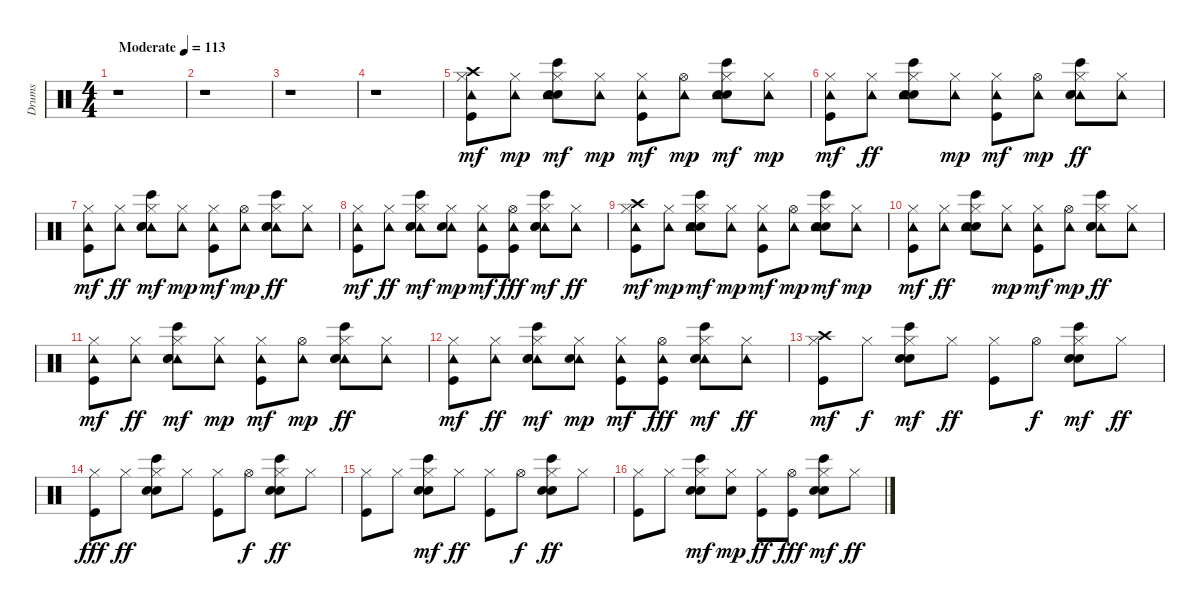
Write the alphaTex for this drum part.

\track ("Drums" "Drums") {instrument percussion}
\staff {score}
\articulation defaults
\ts (4 4)
\tempo (113 "Moderate")
\clef neutral
\ks c
r.1{dy mf} |
r.1 |
r.1 |
r.1 |
("Kick (hit)" "Hi-Hat (closed)" "Crash high (hit)" "Tambourine (hit)").8 ("Tambourine (hit)" "Hi-Hat (closed)").8{dy mp} ("Hi-Hat (closed)" "Bongo High (hit)" "Snare (hit) 2" "Hand Clap (hit)" "Tambourine (hit)").8{dy mf} ("Hi-Hat (closed)" "Tambourine (hit)").8{dy mp} ("Kick (hit)" "Hi-Hat (closed)" "Tambourine (hit)").8{dy mf} ("Tambourine (hit)" "Hi-Hat (open)").8{dy mp} ("Hi-Hat (closed)" "Bongo High (hit)" "Snare (hit) 2" "Hand Clap (hit)" "Tambourine (hit)").8{dy mf} ("Hi-Hat (closed)" "Tambourine (hit)").8{dy mp} |
("Kick (hit)" "Hi-Hat (closed)" "Tambourine (hit)").8{dy mf} ("Tambourine (hit)" "Hi-Hat (closed)").8{dy ff} ("Bongo High (hit)" "Snare (hit) 2" "Hand Clap (hit)" "Tambourine (hit)" "Hi-Hat (closed)").8 ("Hi-Hat (closed)" "Tambourine (hit)").8{dy mp} ("Kick (hit)" "Hi-Hat (closed)" "Tambourine (hit)").8{dy mf} ("Tambourine (hit)" "Hi-Hat (open)").8{dy mp} ("Tambourine (hit)" "Bongo High (hit)" "Snare (hit) 2" "Hand Clap (hit)" "Hi-Hat (closed)").8{dy ff} ("Tambourine (hit)" "Hi-Hat (closed)").8 |
("Kick (hit)" "Hi-Hat (closed)" "Tambourine (hit)").8{dy mf} ("Tambourine (hit)" "Hi-Hat (closed)").8{dy ff} ("Tambourine (hit)" "Hi-Hat (closed)" "Bongo High (hit)" "Snare (hit) 2" "Hand Clap (hit)").8{dy mf} ("Hi-Hat (closed)" "Tambourine (hit)").8{dy mp} ("Kick (hit)" "Hi-Hat (closed)" "Tambourine (hit)").8{dy mf} ("Tambourine (hit)" "Hi-Hat (open)").8{dy mp} ("Tambourine (hit)" "Bongo High (hit)" "Snare (hit) 2" "Hand Clap (hit)" "Hi-Hat (closed)").8{dy ff} ("Tambourine (hit)" "Hi-Hat (closed)").8 |
("Kick (hit)" "Hi-Hat (closed)" "Tambourine (hit)").8{dy mf} ("Tambourine (hit)" "Hi-Hat (closed)").8{dy ff} ("Hi-Hat (closed)" "Tambourine (hit)" "Bongo High (hit)" "Snare (hit) 2" "Hand Clap (hit)").8{dy mf} ("Hi-Hat (closed)" "Tambourine (hit)" "Snare (hit) 2").8{dy mp} ("Kick (hit)" "Hi-Hat (closed)" "Tambourine (hit)").8{dy mf} ("Hi-Hat (open)" "Tambourine (hit)" "Kick (hit)").8{dy fff} ("Hi-Hat (closed)" "Tambourine (hit)" "Bongo High (hit)" "Snare (hit) 2" "Hand Clap (hit)").8{dy mf} ("Tambourine (hit)" "Hi-Hat (closed)").8{dy ff} |
("Kick (hit)" "Hi-Hat (closed)" "Crash high (hit)" "Tambourine (hit)").8{dy mf} ("Tambourine (hit)" "Hi-Hat (closed)").8{dy mp} ("Hi-Hat (closed)" "Bongo High (hit)" "Snare (hit) 2" "Hand Clap (hit)" "Tambourine (hit)").8{dy mf} ("Hi-Hat (closed)" "Tambourine (hit)").8{dy mp} ("Kick (hit)" "Hi-Hat (closed)" "Tambourine (hit)").8{dy mf} ("Tambourine (hit)" "Hi-Hat (open)").8{dy mp} ("Hi-Hat (closed)" "Bongo High (hit)" "Snare (hit) 2" "Hand Clap (hit)" "Tambourine (hit)").8{dy mf} ("Hi-Hat (closed)" "Tambourine (hit)").8{dy mp} |
("Kick (hit)" "Hi-Hat (closed)" "Tambourine (hit)").8{dy mf} ("Tambourine (hit)" "Hi-Hat (closed)").8{dy ff} ("Bongo High (hit)" "Snare (hit) 2" "Hand Clap (hit)" "Tambourine (hit)" "Hi-Hat (closed)").8 ("Hi-Hat (closed)" "Tambourine (hit)").8{dy mp} ("Kick (hit)" "Hi-Hat (closed)" "Tambourine (hit)").8{dy mf} ("Tambourine (hit)" "Hi-Hat (open)").8{dy mp} ("Tambourine (hit)" "Bongo High (hit)" "Snare (hit) 2" "Hand Clap (hit)" "Hi-Hat (closed)").8{dy ff} ("Tambourine (hit)" "Hi-Hat (closed)").8 |
("Kick (hit)" "Hi-Hat (closed)" "Tambourine (hit)").8{dy mf} ("Tambourine (hit)" "Hi-Hat (closed)").8{dy ff} ("Tambourine (hit)" "Hi-Hat (closed)" "Bongo High (hit)" "Snare (hit) 2" "Hand Clap (hit)").8{dy mf} ("Hi-Hat (closed)" "Tambourine (hit)").8{dy mp} ("Kick (hit)" "Hi-Hat (closed)" "Tambourine (hit)").8{dy mf} ("Tambourine (hit)" "Hi-Hat (open)").8{dy mp} ("Tambourine (hit)" "Bongo High (hit)" "Snare (hit) 2" "Hand Clap (hit)" "Hi-Hat (closed)").8{dy ff} ("Tambourine (hit)" "Hi-Hat (closed)").8 |
("Kick (hit)" "Hi-Hat (closed)" "Tambourine (hit)").8{dy mf} ("Tambourine (hit)" "Hi-Hat (closed)").8{dy ff} ("Hi-Hat (closed)" "Tambourine (hit)" "Bongo High (hit)" "Snare (hit) 2" "Hand Clap (hit)").8{dy mf} ("Hi-Hat (closed)" "Tambourine (hit)" "Snare (hit) 2").8{dy mp} ("Kick (hit)" "Hi-Hat (closed)" "Tambourine (hit)").8{dy mf} ("Hi-Hat (open)" "Tambourine (hit)" "Kick (hit)").8{dy fff} ("Hi-Hat (closed)" "Tambourine (hit)" "Bongo High (hit)" "Snare (hit) 2" "Hand Clap (hit)").8{dy mf} ("Tambourine (hit)" "Hi-Hat (closed)").8{dy ff} |
("Kick (hit)" "Hi-Hat (closed)" "Crash high (hit)").8{dy mf} "Hi-Hat (closed)".8{dy f} ("Hi-Hat (closed)" "Bongo High (hit)" "Snare (hit) 2" "Hand Clap (hit)").8{dy mf} "Hi-Hat (closed)".8{dy ff} ("Kick (hit)" "Hi-Hat (closed)").8 "Hi-Hat (open)".8{dy f} ("Hi-Hat (closed)" "Bongo High (hit)" "Snare (hit) 2" "Hand Clap (hit)").8{dy mf} "Hi-Hat (closed)".8{dy ff} |
("Kick (hit)" "Hi-Hat (closed)").8{dy fff} "Hi-Hat (closed)".8{dy ff} ("Bongo High (hit)" "Snare (hit) 2" "Hand Clap (hit)" "Hi-Hat (closed)").8 "Hi-Hat (closed)".8 ("Kick (hit)" "Hi-Hat (closed)").8 "Hi-Hat (open)".8{dy f} ("Bongo High (hit)" "Snare (hit) 2" "Hand Clap (hit)" "Hi-Hat (closed)").8{dy ff} "Hi-Hat (closed)".8 |
("Kick (hit)" "Hi-Hat (closed)").8 "Hi-Hat (closed)".8 ("Hi-Hat (closed)" "Bongo High (hit)" "Snare (hit) 2" "Hand Clap (hit)").8{dy mf} "Hi-Hat (closed)".8{dy ff} ("Kick (hit)" "Hi-Hat (closed)").8 "Hi-Hat (open)".8{dy f} ("Bongo High (hit)" "Snare (hit) 2" "Hand Clap (hit)" "Hi-Hat (closed)").8{dy ff} "Hi-Hat (closed)".8 |
("Kick (hit)" "Hi-Hat (closed)").8 "Hi-Hat (closed)".8 ("Hi-Hat (closed)" "Bongo High (hit)" "Snare (hit) 2" "Hand Clap (hit)").8{dy mf} ("Hi-Hat (closed)" "Snare (hit) 2").8{dy mp} ("Kick (hit)" "Hi-Hat (closed)").8{dy ff} ("Hi-Hat (open)" "Kick (hit)").8{dy fff} ("Hi-Hat (closed)" "Bongo High (hit)" "Snare (hit) 2" "Hand Clap (hit)").8{dy mf} "Hi-Hat (closed)".8{dy ff}
